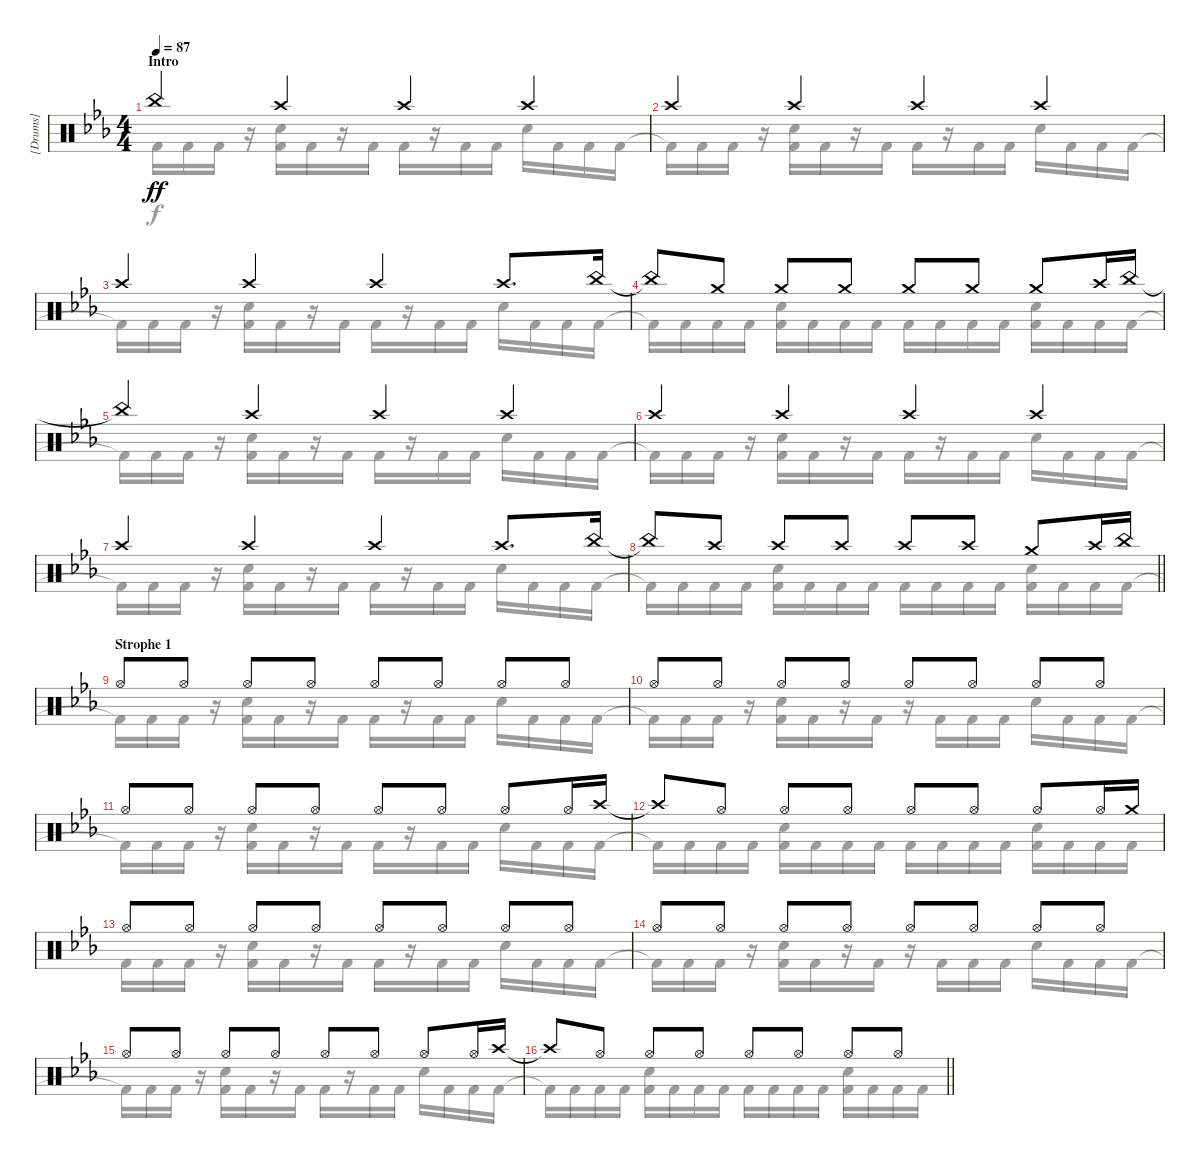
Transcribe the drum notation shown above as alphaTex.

\track ("[Drums]" "[Drums]") {instrument percussion}
\staff {score}
\articulation defaults
\voice
\ts (4 4)
\section ("" "Intro")
\tempo 87
\clef neutral
\ks cminor "China (hit)".4{dy ff} "Crash high (hit)".4 "Crash high (hit)".4 "Crash high (hit)".4
|
"Crash high (hit)".4 "Crash high (hit)".4 "Crash high (hit)".4 "Crash high (hit)".4 |
"Crash high (hit)".4 "Crash high (hit)".4 "Crash high (hit)".4 "Crash high (hit)".8{d} "China (hit)".16 |
"China (hit)"{t}.8 "Crash medium (hit)".8 "Crash medium (hit)".8 "Crash medium (hit)".8 "Crash medium (hit)".8 "Crash medium (hit)".8 "Crash medium (hit)".8 "Crash high (hit)".16 "China (hit)".16 |
"China (hit)"{t}.4 "Crash high (hit)".4 "Crash high (hit)".4 "Crash high (hit)".4 |
"Crash high (hit)".4 "Crash high (hit)".4 "Crash high (hit)".4 "Crash high (hit)".4 |
"Crash high (hit)".4 "Crash high (hit)".4 "Crash high (hit)".4 "Crash high (hit)".8{d} "China (hit)".16 |
\barLineRight lightlight "China (hit)"{t}.8 "Crash high (hit)".8 "Crash high (hit)".8 "Crash high (hit)".8 "Crash high (hit)".8 "Crash high (hit)".8 "Crash medium (hit)".8 "Crash high (hit)".16 "China (hit)".16
|
\section ("" "Strophe 1")
"Hi-Hat (open)".8 "Hi-Hat (open)".8 "Hi-Hat (open)".8 "Hi-Hat (open)".8 "Hi-Hat (open)".8 "Hi-Hat (open)".8 "Hi-Hat (open)".8 "Hi-Hat (open)".8 |
"Hi-Hat (open)".8 "Hi-Hat (open)".8 "Hi-Hat (open)".8 "Hi-Hat (open)".8 "Hi-Hat (open)".8 "Hi-Hat (open)".8 "Hi-Hat (open)".8 "Hi-Hat (open)".8 |
"Hi-Hat (open)".8 "Hi-Hat (open)".8 "Hi-Hat (open)".8 "Hi-Hat (open)".8 "Hi-Hat (open)".8 "Hi-Hat (open)".8 "Hi-Hat (open)".8 "Hi-Hat (open)".16 "Crash high (hit)".16 |
"Crash high (hit)"{t}.8 "Hi-Hat (open)".8 "Hi-Hat (open)".8 "Hi-Hat (open)".8 "Hi-Hat (open)".8 "Hi-Hat (open)".8 "Hi-Hat (open)".8 "Hi-Hat (open)".16 "Crash medium (hit)".16 |
"Hi-Hat (open)".8 "Hi-Hat (open)".8 "Hi-Hat (open)".8 "Hi-Hat (open)".8 "Hi-Hat (open)".8 "Hi-Hat (open)".8 "Hi-Hat (open)".8 "Hi-Hat (open)".8 |
"Hi-Hat (open)".8 "Hi-Hat (open)".8 "Hi-Hat (open)".8 "Hi-Hat (open)".8 "Hi-Hat (open)".8 "Hi-Hat (open)".8 "Hi-Hat (open)".8 "Hi-Hat (open)".8 |
"Hi-Hat (open)".8 "Hi-Hat (open)".8 "Hi-Hat (open)".8 "Hi-Hat (open)".8 "Hi-Hat (open)".8 "Hi-Hat (open)".8 "Hi-Hat (open)".8 "Hi-Hat (open)".16 "Crash high (hit)".16 |
\barLineRight lightlight "Crash high (hit)"{t}.8 "Hi-Hat (open)".8 "Hi-Hat (open)".8 "Hi-Hat (open)".8 "Hi-Hat (open)".8 "Hi-Hat (open)".8 "Hi-Hat (open)".8 "Hi-Hat (open)".8
\voice
\clef neutral
\ottava regular
\simile none
\ks cminor "Kick (hit) 2".16{dy f} "Kick (hit) 2".16 "Kick (hit) 2".16
r.16 ("Kick (hit) 2" "Snare (hit) 2").16 "Kick (hit) 2".16 r.16 "Kick (hit) 2".16 "Kick (hit) 2".16 r.16 "Kick (hit) 2".16 "Kick (hit) 2".16 "Snare (hit) 2".16 "Kick (hit) 2".16 "Kick (hit) 2".16 "Kick (hit) 2".16 |
"Kick (hit) 2"{t}.16 "Kick (hit) 2".16 "Kick (hit) 2".16 r.16 ("Kick (hit) 2" "Snare (hit) 2").16 "Kick (hit) 2".16 r.16 "Kick (hit) 2".16 "Kick (hit) 2".16 r.16 "Kick (hit) 2".16 "Kick (hit) 2".16 "Snare (hit) 2".16 "Kick (hit) 2".16 "Kick (hit) 2".16 "Kick (hit) 2".16 |
"Kick (hit) 2"{t}.16 "Kick (hit) 2".16 "Kick (hit) 2".16 r.16 ("Kick (hit) 2" "Snare (hit) 2").16 "Kick (hit) 2".16 r.16 "Kick (hit) 2".16 "Kick (hit) 2".16 r.16 "Kick (hit) 2".16 "Kick (hit) 2".16 "Snare (hit) 2".16 "Kick (hit) 2".16 "Kick (hit) 2".16 "Kick (hit) 2".16 |
"Kick (hit) 2"{t}.16 "Kick (hit) 2".16 "Kick (hit) 2".16 "Kick (hit) 2".16 ("Kick (hit) 2" "Snare (hit) 2").16 "Kick (hit) 2".16 "Kick (hit) 2".16 "Kick (hit) 2".16 "Kick (hit) 2".16 "Kick (hit) 2".16 "Kick (hit) 2".16 "Kick (hit) 2".16 ("Kick (hit) 2" "Snare (hit) 2").16 "Kick (hit) 2".16 "Kick (hit) 2".16 "Kick (hit) 2".16 |
"Kick (hit) 2"{t}.16 "Kick (hit) 2".16 "Kick (hit) 2".16 r.16 ("Kick (hit) 2" "Snare (hit) 2").16 "Kick (hit) 2".16 r.16 "Kick (hit) 2".16 "Kick (hit) 2".16 r.16 "Kick (hit) 2".16 "Kick (hit) 2".16 "Snare (hit) 2".16 "Kick (hit) 2".16 "Kick (hit) 2".16 "Kick (hit) 2".16 |
"Kick (hit) 2"{t}.16 "Kick (hit) 2".16 "Kick (hit) 2".16 r.16 ("Kick (hit) 2" "Snare (hit) 2").16 "Kick (hit) 2".16 r.16 "Kick (hit) 2".16 "Kick (hit) 2".16 r.16 "Kick (hit) 2".16 "Kick (hit) 2".16 "Snare (hit) 2".16 "Kick (hit) 2".16 "Kick (hit) 2".16 "Kick (hit) 2".16 |
"Kick (hit) 2"{t}.16 "Kick (hit) 2".16 "Kick (hit) 2".16 r.16 ("Kick (hit) 2" "Snare (hit) 2").16 "Kick (hit) 2".16 r.16 "Kick (hit) 2".16 "Kick (hit) 2".16 r.16 "Kick (hit) 2".16 "Kick (hit) 2".16 "Snare (hit) 2".16 "Kick (hit) 2".16 "Kick (hit) 2".16 "Kick (hit) 2".16 |
\barLineRight lightlight "Kick (hit) 2"{t}.16 "Kick (hit) 2".16 "Kick (hit) 2".16 "Kick (hit) 2".16
("Kick (hit) 2" "Snare (hit) 2").16 "Kick (hit) 2".16 "Kick (hit) 2".16 "Kick (hit) 2".16 "Kick (hit) 2".16 "Kick (hit) 2".16 "Kick (hit) 2".16 "Kick (hit) 2".16 ("Kick (hit) 2" "Snare (hit) 2").16 "Kick (hit) 2".16 "Kick (hit) 2".16 "Kick (hit) 2".16 |
"Kick (hit) 2"{t}.16 "Kick (hit) 2".16 "Kick (hit) 2".16 r.16 ("Kick (hit) 2" "Snare (hit) 2").16 "Kick (hit) 2".16 r.16 "Kick (hit) 2".16 "Kick (hit) 2".16 r.16 "Kick (hit) 2".16 "Kick (hit) 2".16 "Snare (hit) 2".16 "Kick (hit) 2".16 "Kick (hit) 2".16 "Kick (hit) 2".16 |
"Kick (hit) 2"{t}.16 "Kick (hit) 2".16 "Kick (hit) 2".16 r.16 ("Kick (hit) 2" "Snare (hit) 2").16 "Kick (hit) 2".16 r.16 "Kick (hit) 2".16 r.16 "Kick (hit) 2".16 "Kick (hit) 2".16 "Kick (hit) 2".16 "Snare (hit) 2".16 "Kick (hit) 2".16 "Kick (hit) 2".16 "Kick (hit) 2".16 |
"Kick (hit) 2"{t}.16 "Kick (hit) 2".16 "Kick (hit) 2".16 r.16 ("Kick (hit) 2" "Snare (hit) 2").16 "Kick (hit) 2".16 r.16 "Kick (hit) 2".16 "Kick (hit) 2".16 r.16 "Kick (hit) 2".16 "Kick (hit) 2".16 "Snare (hit) 2".16 "Kick (hit) 2".16 "Kick (hit) 2".16 "Kick (hit) 2".16 |
"Kick (hit) 2"{t}.16 "Kick (hit) 2".16 "Kick (hit) 2".16 "Kick (hit) 2".16 ("Kick (hit) 2" "Snare (hit) 2").16 "Kick (hit) 2".16 "Kick (hit) 2".16 "Kick (hit) 2".16 "Kick (hit) 2".16 "Kick (hit) 2".16 "Kick (hit) 2".16 "Kick (hit) 2".16 ("Kick (hit) 2" "Snare (hit) 2").16 "Kick (hit) 2".16 "Kick (hit) 2".16 "Kick (hit) 2".16 |
"Kick (hit) 2".16 "Kick (hit) 2".16 "Kick (hit) 2".16 r.16 ("Kick (hit) 2" "Snare (hit) 2").16 "Kick (hit) 2".16 r.16 "Kick (hit) 2".16 "Kick (hit) 2".16 r.16 "Kick (hit) 2".16 "Kick (hit) 2".16 "Snare (hit) 2".16 "Kick (hit) 2".16 "Kick (hit) 2".16 "Kick (hit) 2".16 |
"Kick (hit) 2"{t}.16 "Kick (hit) 2".16 "Kick (hit) 2".16 r.16 ("Kick (hit) 2" "Snare (hit) 2").16 "Kick (hit) 2".16 r.16 "Kick (hit) 2".16 r.16 "Kick (hit) 2".16 "Kick (hit) 2".16 "Kick (hit) 2".16 "Snare (hit) 2".16 "Kick (hit) 2".16 "Kick (hit) 2".16 "Kick (hit) 2".16 |
"Kick (hit) 2"{t}.16 "Kick (hit) 2".16 "Kick (hit) 2".16 r.16 ("Kick (hit) 2" "Snare (hit) 2").16 "Kick (hit) 2".16 r.16 "Kick (hit) 2".16 "Kick (hit) 2".16 r.16 "Kick (hit) 2".16 "Kick (hit) 2".16 "Snare (hit) 2".16 "Kick (hit) 2".16 "Kick (hit) 2".16 "Kick (hit) 2".16 |
\barLineRight lightlight "Kick (hit) 2"{t}.16 "Kick (hit) 2".16 "Kick (hit) 2".16 "Kick (hit) 2".16
("Kick (hit) 2" "Snare (hit) 2").16 "Kick (hit) 2".16 "Kick (hit) 2".16 "Kick (hit) 2".16 "Kick (hit) 2".16 "Kick (hit) 2".16 "Kick (hit) 2".16 "Kick (hit) 2".16 ("Kick (hit) 2" "Snare (hit) 2").16 "Kick (hit) 2".16 "Kick (hit) 2".16 "Kick (hit) 2".16
